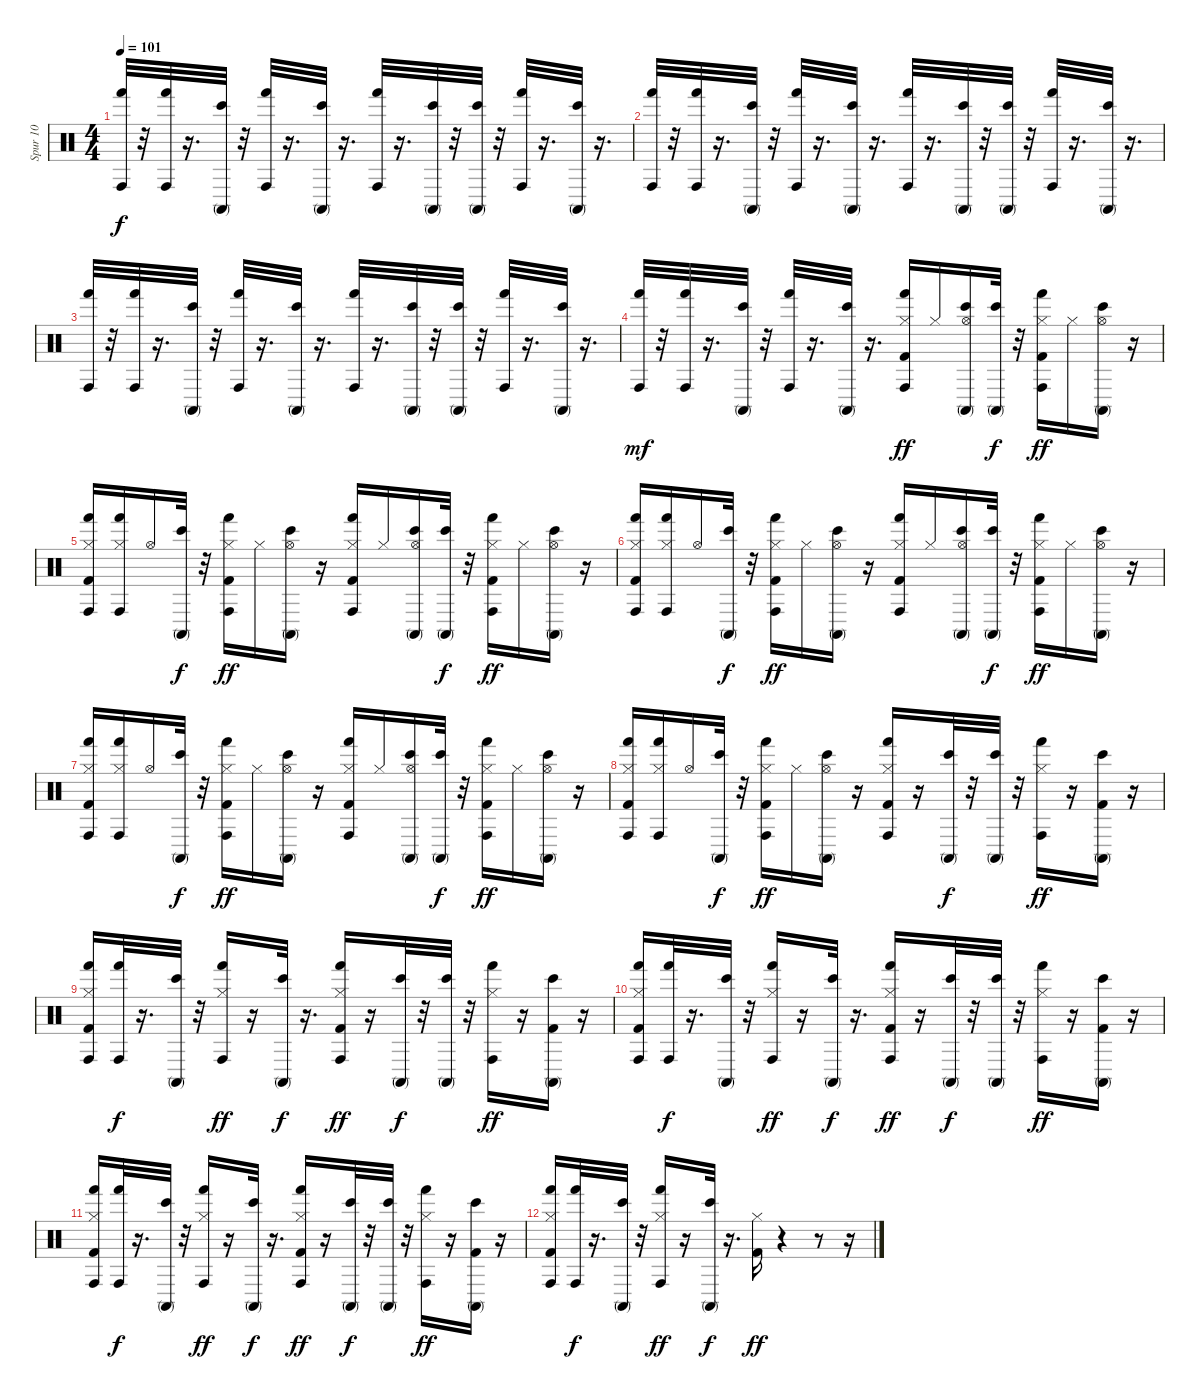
\track ("Spur 10" "Spur 10") {instrument percussion}
\staff {score}
\articulation defaults
\ts (4 4)
\tempo 101
\clef neutral
\ks c
("Hand (hit)" "Conga high (hit)").32{dy f} r.32 ("Hand (hit)" "Conga high (hit)").32 r.16{d} ("Bongo High (hit)" "Conga high (mute)").32 r.32 ("Hand (hit)" "Conga high (hit)").32 r.16{d} ("Bongo High (hit)" "Conga high (mute)").32 r.16{d} ("Hand (hit)" "Conga high (hit)").32 r.16{d} ("Bongo High (hit)" "Conga high (mute)").32 r.32 ("Bongo High (hit)" "Conga high (mute)").32 r.32 ("Hand (hit)" "Conga high (hit)").32 r.16{d} ("Bongo High (hit)" "Conga high (mute)").32 r.16{d} |
("Hand (hit)" "Conga high (hit)").32 r.32 ("Hand (hit)" "Conga high (hit)").32 r.16{d} ("Bongo High (hit)" "Conga high (mute)").32 r.32 ("Hand (hit)" "Conga high (hit)").32 r.16{d} ("Bongo High (hit)" "Conga high (mute)").32 r.16{d} ("Hand (hit)" "Conga high (hit)").32 r.16{d} ("Bongo High (hit)" "Conga high (mute)").32 r.32 ("Bongo High (hit)" "Conga high (mute)").32 r.32 ("Hand (hit)" "Conga high (hit)").32 r.16{d} ("Bongo High (hit)" "Conga high (mute)").32 r.16{d} |
("Hand (hit)" "Conga high (hit)").32 r.32 ("Hand (hit)" "Conga high (hit)").32 r.16{d} ("Bongo High (hit)" "Conga high (mute)").32 r.32 ("Hand (hit)" "Conga high (hit)").32 r.16{d} ("Bongo High (hit)" "Conga high (mute)").32 r.16{d} ("Hand (hit)" "Conga high (hit)").32 r.16{d} ("Bongo High (hit)" "Conga high (mute)").32 r.32 ("Bongo High (hit)" "Conga high (mute)").32 r.32 ("Hand (hit)" "Conga high (hit)").32 r.16{d} ("Bongo High (hit)" "Conga high (mute)").32 r.16{d} |
("Hand (hit)" "Conga high (hit)").32{dy mf} r.32 ("Hand (hit)" "Conga high (hit)").32 r.16{d} ("Bongo High (hit)" "Conga high (mute)").32 r.32 ("Hand (hit)" "Conga high (hit)").32 r.16{d} ("Bongo High (hit)" "Conga high (mute)").32 r.16{d} ("Kick (hit) 2" "Hi-Hat (closed)" "Hand (hit)" "Conga high (hit)").16{dy ff} "Hi-Hat (closed)".16 ("Hi-Hat (open)" "Bongo High (hit)" "Conga high (mute)").16 ("Bongo High (hit)" "Conga high (mute)").32{dy f} r.32 ("Kick (hit) 2" "Hi-Hat (closed)" "Hand (hit)" "Conga high (hit)").16{dy ff} "Hi-Hat (closed)".16 ("Hi-Hat (open)" "Bongo High (hit)" "Conga high (mute)").16 r.16 |
("Kick (hit) 2" "Hi-Hat (closed)" "Hand (hit)" "Conga high (hit)").16 ("Hi-Hat (closed)" "Hand (hit)" "Conga high (hit)").16 "Hi-Hat (open)".16 ("Bongo High (hit)" "Conga high (mute)").32{dy f} r.32 ("Kick (hit) 2" "Hi-Hat (closed)" "Hand (hit)" "Conga high (hit)").16{dy ff} "Hi-Hat (closed)".16 ("Hi-Hat (open)" "Bongo High (hit)" "Conga high (mute)").16 r.16 ("Kick (hit) 2" "Hi-Hat (closed)" "Hand (hit)" "Conga high (hit)").16 "Hi-Hat (closed)".16 ("Hi-Hat (open)" "Bongo High (hit)" "Conga high (mute)").16 ("Bongo High (hit)" "Conga high (mute)").32{dy f} r.32 ("Kick (hit) 2" "Hi-Hat (closed)" "Hand (hit)" "Conga high (hit)").16{dy ff} "Hi-Hat (closed)".16 ("Hi-Hat (open)" "Bongo High (hit)" "Conga high (mute)").16 r.16 |
("Kick (hit) 2" "Hi-Hat (closed)" "Hand (hit)" "Conga high (hit)").16 ("Hi-Hat (closed)" "Hand (hit)" "Conga high (hit)").16 "Hi-Hat (open)".16 ("Bongo High (hit)" "Conga high (mute)").32{dy f} r.32 ("Kick (hit) 2" "Hi-Hat (closed)" "Hand (hit)" "Conga high (hit)").16{dy ff} "Hi-Hat (closed)".16 ("Hi-Hat (open)" "Bongo High (hit)" "Conga high (mute)").16 r.16 ("Kick (hit) 2" "Hi-Hat (closed)" "Hand (hit)" "Conga high (hit)").16 "Hi-Hat (closed)".16 ("Hi-Hat (open)" "Bongo High (hit)" "Conga high (mute)").16 ("Bongo High (hit)" "Conga high (mute)").32{dy f} r.32 ("Kick (hit) 2" "Hi-Hat (closed)" "Hand (hit)" "Conga high (hit)").16{dy ff} "Hi-Hat (closed)".16 ("Hi-Hat (open)" "Bongo High (hit)" "Conga high (mute)").16 r.16 |
("Kick (hit) 2" "Hi-Hat (closed)" "Hand (hit)" "Conga high (hit)").16 ("Hi-Hat (closed)" "Hand (hit)" "Conga high (hit)").16 "Hi-Hat (open)".16 ("Bongo High (hit)" "Conga high (mute)").32{dy f} r.32 ("Kick (hit) 2" "Hi-Hat (closed)" "Hand (hit)" "Conga high (hit)").16{dy ff} "Hi-Hat (closed)".16 ("Hi-Hat (open)" "Bongo High (hit)" "Conga high (mute)").16 r.16 ("Kick (hit) 2" "Hi-Hat (closed)" "Hand (hit)" "Conga high (hit)").16 "Hi-Hat (closed)".16 ("Hi-Hat (open)" "Bongo High (hit)" "Conga high (mute)").16 ("Bongo High (hit)" "Conga high (mute)").32{dy f} r.32 ("Kick (hit) 2" "Hi-Hat (closed)" "Hand (hit)" "Conga high (hit)").16{dy ff} "Hi-Hat (closed)".16 ("Hi-Hat (open)" "Bongo High (hit)" "Conga high (mute)").16 r.16 |
("Kick (hit) 2" "Hi-Hat (closed)" "Hand (hit)" "Conga high (hit)").16 ("Hi-Hat (closed)" "Hand (hit)" "Conga high (hit)").16 "Hi-Hat (open)".16 ("Bongo High (hit)" "Conga high (mute)").32{dy f} r.32 ("Kick (hit) 2" "Hi-Hat (closed)" "Hand (hit)" "Conga high (hit)").16{dy ff} "Hi-Hat (closed)".16 ("Hi-Hat (open)" "Bongo High (hit)" "Conga high (mute)").16 r.16 ("Kick (hit) 2" "Hi-Hat (closed)" "Hand (hit)" "Conga high (hit)").16 r.16 ("Bongo High (hit)" "Conga high (mute)").32{dy f} r.32 ("Bongo High (hit)" "Conga high (mute)").32 r.32 ("Hi-Hat (closed)" "Hand (hit)" "Conga high (hit)").16{dy ff} r.16 ("Kick (hit) 2" "Bongo High (hit)" "Conga high (mute)").16 r.16 |
("Kick (hit) 2" "Hi-Hat (closed)" "Hand (hit)" "Conga high (hit)").16 ("Hand (hit)" "Conga high (hit)").32{dy f} r.16{d} ("Bongo High (hit)" "Conga high (mute)").32 r.32 ("Hi-Hat (closed)" "Hand (hit)" "Conga high (hit)").16{dy ff} r.16 ("Bongo High (hit)" "Conga high (mute)").32{dy f} r.16{d} ("Kick (hit) 2" "Hi-Hat (closed)" "Hand (hit)" "Conga high (hit)").16{dy ff} r.16 ("Bongo High (hit)" "Conga high (mute)").32{dy f} r.32 ("Bongo High (hit)" "Conga high (mute)").32 r.32 ("Hi-Hat (closed)" "Hand (hit)" "Conga high (hit)").16{dy ff} r.16 ("Kick (hit) 2" "Bongo High (hit)" "Conga high (mute)").16 r.16 |
("Kick (hit) 2" "Hi-Hat (closed)" "Hand (hit)" "Conga high (hit)").16 ("Hand (hit)" "Conga high (hit)").32{dy f} r.16{d} ("Bongo High (hit)" "Conga high (mute)").32 r.32 ("Hi-Hat (closed)" "Hand (hit)" "Conga high (hit)").16{dy ff} r.16 ("Bongo High (hit)" "Conga high (mute)").32{dy f} r.16{d} ("Kick (hit) 2" "Hi-Hat (closed)" "Hand (hit)" "Conga high (hit)").16{dy ff} r.16 ("Bongo High (hit)" "Conga high (mute)").32{dy f} r.32 ("Bongo High (hit)" "Conga high (mute)").32 r.32 ("Hi-Hat (closed)" "Hand (hit)" "Conga high (hit)").16{dy ff} r.16 ("Kick (hit) 2" "Bongo High (hit)" "Conga high (mute)").16 r.16 |
("Kick (hit) 2" "Hi-Hat (closed)" "Hand (hit)" "Conga high (hit)").16 ("Hand (hit)" "Conga high (hit)").32{dy f} r.16{d} ("Bongo High (hit)" "Conga high (mute)").32 r.32 ("Hi-Hat (closed)" "Hand (hit)" "Conga high (hit)").16{dy ff} r.16 ("Bongo High (hit)" "Conga high (mute)").32{dy f} r.16{d} ("Kick (hit) 2" "Hi-Hat (closed)" "Hand (hit)" "Conga high (hit)").16{dy ff} r.16 ("Bongo High (hit)" "Conga high (mute)").32{dy f} r.32 ("Bongo High (hit)" "Conga high (mute)").32 r.32 ("Hi-Hat (closed)" "Hand (hit)" "Conga high (hit)").16{dy ff} r.16 ("Kick (hit) 2" "Bongo High (hit)" "Conga high (mute)").16 r.16 |
("Kick (hit) 2" "Hi-Hat (closed)" "Hand (hit)" "Conga high (hit)").16 ("Hand (hit)" "Conga high (hit)").32{dy f} r.16{d} ("Bongo High (hit)" "Conga high (mute)").32 r.32 ("Hi-Hat (closed)" "Hand (hit)" "Conga high (hit)").16{dy ff} r.16 ("Bongo High (hit)" "Conga high (mute)").32{dy f} r.16{d} ("Kick (hit) 2" "Hi-Hat (closed)").16{dy ff} r.4 r.8 r.16
